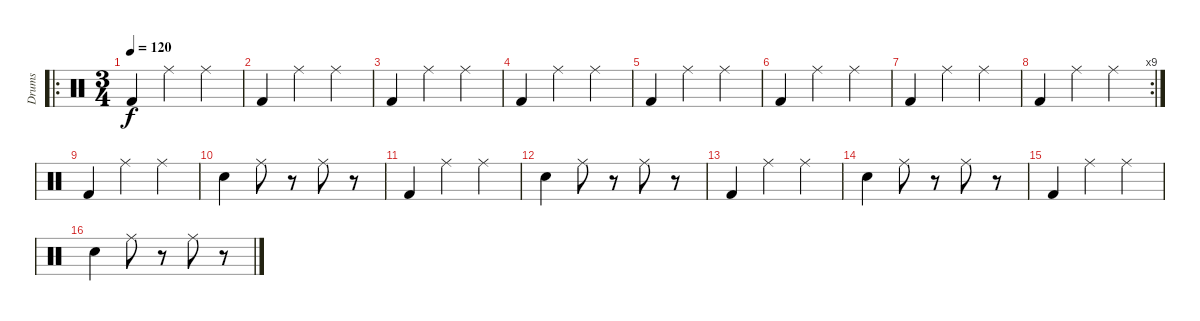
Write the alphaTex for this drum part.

\track ("Drums" "Drums") {instrument percussion}
\staff {score}
\articulation defaults
\ro
\ts (3 4)
\tempo 120
\clef neutral
\ks c "Kick (hit) 2".4{dy f} "Ride (middle)".4 "Ride (middle)".4
|
"Kick (hit) 2".4 "Ride (middle)".4 "Ride (middle)".4 |
"Kick (hit) 2".4 "Ride (middle)".4 "Ride (middle)".4 |
"Kick (hit) 2".4 "Ride (middle)".4 "Ride (middle)".4 |
"Kick (hit) 2".4 "Ride (middle)".4 "Ride (middle)".4 |
"Kick (hit) 2".4 "Ride (middle)".4 "Ride (middle)".4 |
"Kick (hit) 2".4 "Ride (middle)".4 "Ride (middle)".4 |
\rc 9 "Kick (hit) 2".4 "Ride (middle)".4 "Ride (middle)".4
|
"Kick (hit) 2".4 "Ride (middle)".4 "Ride (middle)".4 |
"Snare (hit) 2".4 "Ride (middle)".8 r.8 "Ride (middle)".8 r.8 |
"Kick (hit) 2".4 "Ride (middle)".4 "Ride (middle)".4 |
"Snare (hit) 2".4 "Ride (middle)".8 r.8 "Ride (middle)".8 r.8 |
"Kick (hit) 2".4 "Ride (middle)".4 "Ride (middle)".4 |
"Snare (hit) 2".4 "Ride (middle)".8 r.8 "Ride (middle)".8 r.8 |
"Kick (hit) 2".4 "Ride (middle)".4 "Ride (middle)".4 |
"Snare (hit) 2".4 "Ride (middle)".8 r.8 "Ride (middle)".8 r.8
